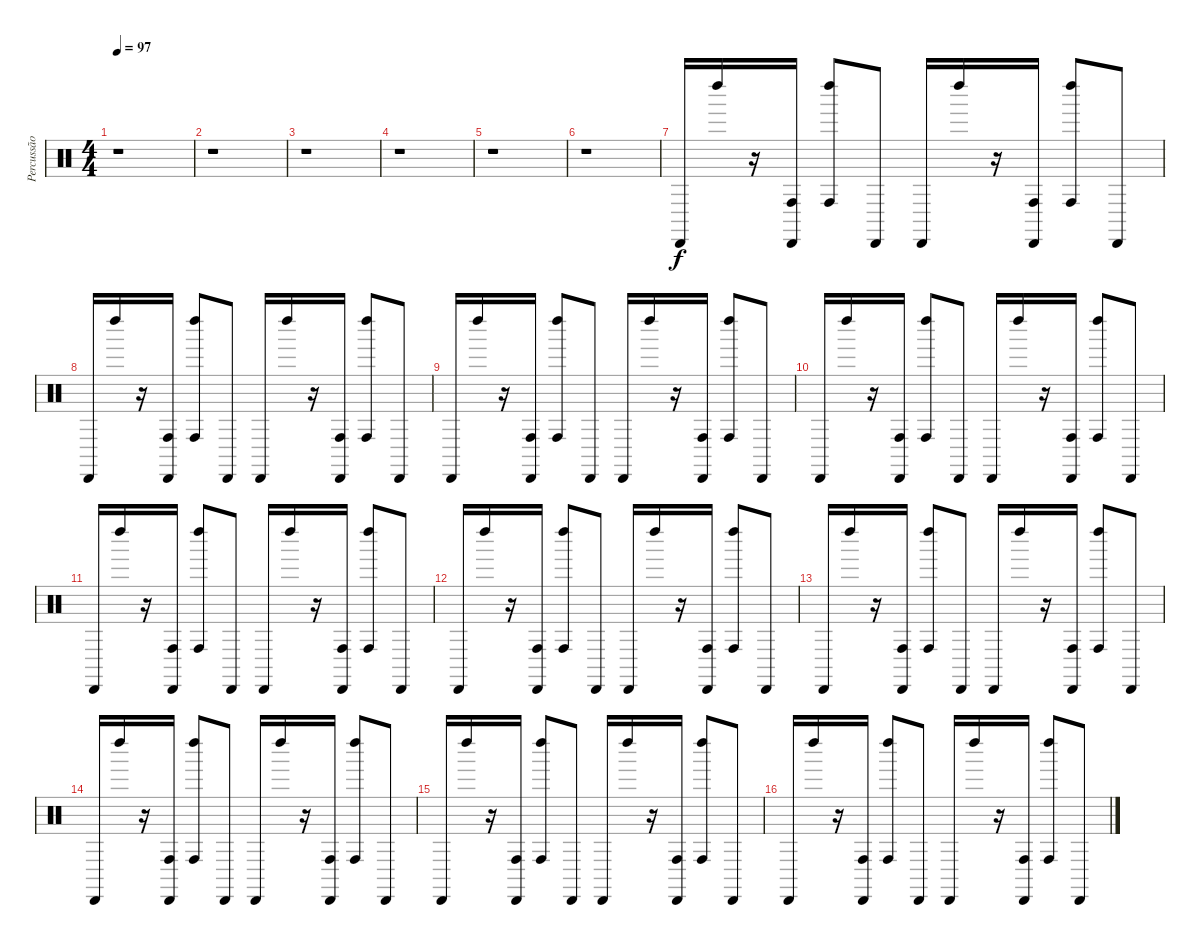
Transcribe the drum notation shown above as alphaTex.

\track ("Percussão" "Percussão") {instrument percussion}
\staff {score}
\articulation defaults
\ts (4 4)
\tempo 97
\clef neutral
\ks c
r.1{dy f} |
r.1 |
r.1 |
r.1 |
r.1 |
r.1 |
"Cabasa (hit)".16 "Left Maraca (hit)".16 r.16 ("Cabasa (hit)" "Conga high (hit)").16 ("Left Maraca (hit)" "Conga high (hit)").8 "Cabasa (hit)".8 "Cabasa (hit)".16 "Left Maraca (hit)".16 r.16 ("Cabasa (hit)" "Conga high (hit)").16 ("Left Maraca (hit)" "Conga high (hit)").8 "Cabasa (hit)".8 |
"Cabasa (hit)".16 "Left Maraca (hit)".16 r.16 ("Cabasa (hit)" "Conga high (hit)").16 ("Left Maraca (hit)" "Conga high (hit)").8 "Cabasa (hit)".8 "Cabasa (hit)".16 "Left Maraca (hit)".16 r.16 ("Cabasa (hit)" "Conga high (hit)").16 ("Left Maraca (hit)" "Conga high (hit)").8 "Cabasa (hit)".8 |
"Cabasa (hit)".16 "Left Maraca (hit)".16 r.16 ("Cabasa (hit)" "Conga high (hit)").16 ("Left Maraca (hit)" "Conga high (hit)").8 "Cabasa (hit)".8 "Cabasa (hit)".16 "Left Maraca (hit)".16 r.16 ("Cabasa (hit)" "Conga high (hit)").16 ("Left Maraca (hit)" "Conga high (hit)").8 "Cabasa (hit)".8 |
"Cabasa (hit)".16 "Left Maraca (hit)".16 r.16 ("Cabasa (hit)" "Conga high (hit)").16 ("Left Maraca (hit)" "Conga high (hit)").8 "Cabasa (hit)".8 "Cabasa (hit)".16 "Left Maraca (hit)".16 r.16 ("Cabasa (hit)" "Conga high (hit)").16 ("Left Maraca (hit)" "Conga high (hit)").8 "Cabasa (hit)".8 |
"Cabasa (hit)".16 "Left Maraca (hit)".16 r.16 ("Cabasa (hit)" "Conga high (hit)").16 ("Left Maraca (hit)" "Conga high (hit)").8 "Cabasa (hit)".8 "Cabasa (hit)".16 "Left Maraca (hit)".16 r.16 ("Cabasa (hit)" "Conga high (hit)").16 ("Left Maraca (hit)" "Conga high (hit)").8 "Cabasa (hit)".8 |
"Cabasa (hit)".16 "Left Maraca (hit)".16 r.16 ("Cabasa (hit)" "Conga high (hit)").16 ("Left Maraca (hit)" "Conga high (hit)").8 "Cabasa (hit)".8 "Cabasa (hit)".16 "Left Maraca (hit)".16 r.16 ("Cabasa (hit)" "Conga high (hit)").16 ("Left Maraca (hit)" "Conga high (hit)").8 "Cabasa (hit)".8 |
"Cabasa (hit)".16 "Left Maraca (hit)".16 r.16 ("Cabasa (hit)" "Conga high (hit)").16 ("Left Maraca (hit)" "Conga high (hit)").8 "Cabasa (hit)".8 "Cabasa (hit)".16 "Left Maraca (hit)".16 r.16 ("Cabasa (hit)" "Conga high (hit)").16 ("Left Maraca (hit)" "Conga high (hit)").8 "Cabasa (hit)".8 |
"Cabasa (hit)".16 "Left Maraca (hit)".16 r.16 ("Cabasa (hit)" "Conga high (hit)").16 ("Left Maraca (hit)" "Conga high (hit)").8 "Cabasa (hit)".8 "Cabasa (hit)".16 "Left Maraca (hit)".16 r.16 ("Cabasa (hit)" "Conga high (hit)").16 ("Left Maraca (hit)" "Conga high (hit)").8 "Cabasa (hit)".8 |
"Cabasa (hit)".16 "Left Maraca (hit)".16 r.16 ("Cabasa (hit)" "Conga high (hit)").16 ("Left Maraca (hit)" "Conga high (hit)").8 "Cabasa (hit)".8 "Cabasa (hit)".16 "Left Maraca (hit)".16 r.16 ("Cabasa (hit)" "Conga high (hit)").16 ("Left Maraca (hit)" "Conga high (hit)").8 "Cabasa (hit)".8 |
"Cabasa (hit)".16 "Left Maraca (hit)".16 r.16 ("Cabasa (hit)" "Conga high (hit)").16 ("Left Maraca (hit)" "Conga high (hit)").8 "Cabasa (hit)".8 "Cabasa (hit)".16 "Left Maraca (hit)".16 r.16 ("Cabasa (hit)" "Conga high (hit)").16 ("Left Maraca (hit)" "Conga high (hit)").8 "Cabasa (hit)".8
